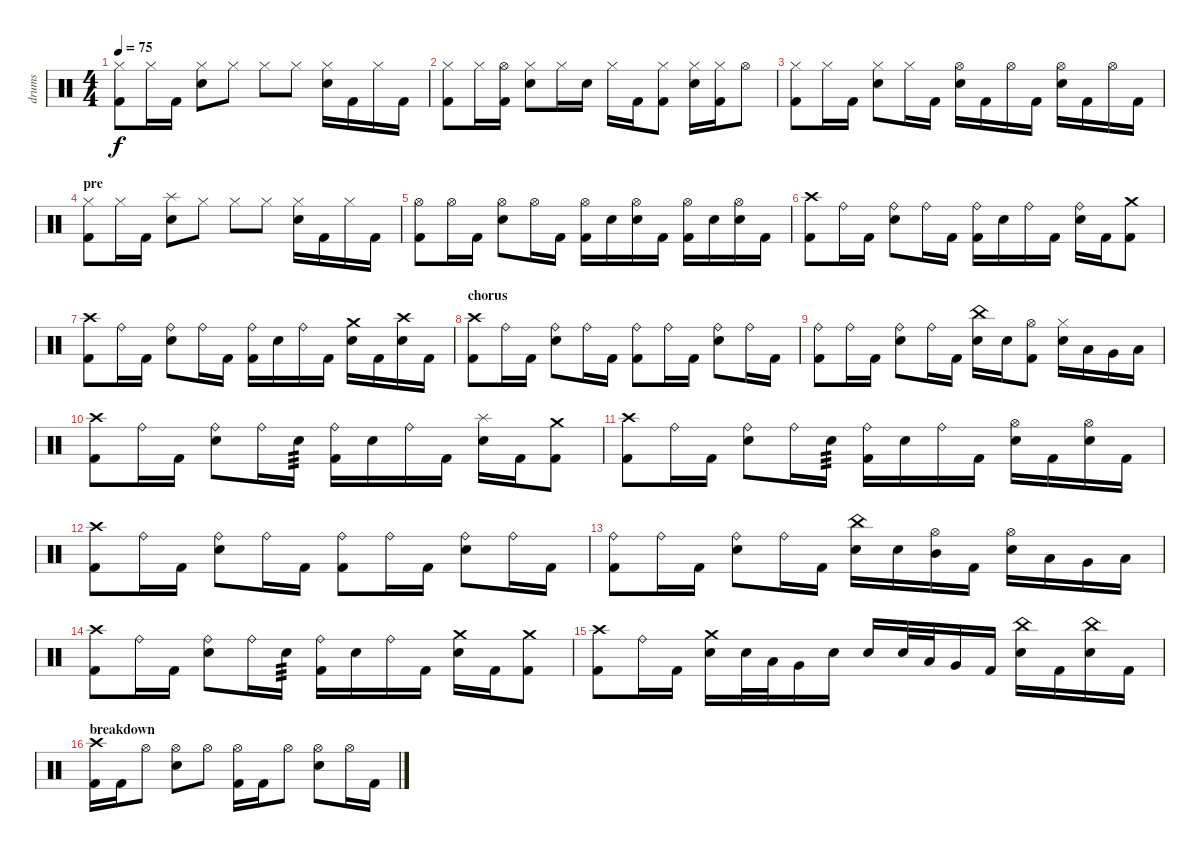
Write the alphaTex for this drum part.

\track ("drums" "drums") {instrument percussion}
\staff {score}
\articulation defaults
\ts (4 4)
\tempo 75
\clef neutral
\ks c
("Hi-Hat (closed)" "Kick (hit) 2").8{dy f} "Hi-Hat (closed)".16 "Kick (hit) 2".16 ("Hi-Hat (closed)" "Electric Snare (hit)").8 "Hi-Hat (closed)".8 "Hi-Hat (closed)".8 "Hi-Hat (closed)".8 ("Hi-Hat (closed)" "Electric Snare (hit)").16 "Kick (hit) 2".16 "Hi-Hat (closed)".16 "Kick (hit) 2".16 |
("Hi-Hat (closed)" "Kick (hit) 2").8 "Hi-Hat (closed)".16 ("Hi-Hat (open)" "Kick (hit) 2").16 ("Hi-Hat (closed)" "Electric Snare (hit)").8 "Hi-Hat (closed)".16 "Electric Snare (hit)".16 "Hi-Hat (closed)".16 "Kick (hit) 2".16 ("Hi-Hat (closed)" "Kick (hit) 2").8 ("Hi-Hat (closed)" "Electric Snare (hit)").16 ("Hi-Hat (closed)" "Kick (hit) 2").16 "Hi-Hat (open)".8 |
("Hi-Hat (closed)" "Kick (hit) 2").8 "Hi-Hat (closed)".16 "Kick (hit) 2".16 ("Hi-Hat (closed)" "Electric Snare (hit)").8 "Hi-Hat (closed)".16 "Kick (hit) 2".16 ("Hi-Hat (open)" "Electric Snare (hit)").16 "Kick (hit) 2".16 "Hi-Hat (open)".16 "Kick (hit) 2".16 ("Hi-Hat (open)" "Electric Snare (hit)").16 "Kick (hit) 2".16 "Hi-Hat (open)".16 "Kick (hit) 2".16 |
\section ("" "pre")
("Hi-Hat (closed)" "Kick (hit) 2").8 "Hi-Hat (closed)".16 "Kick (hit) 2".16 ("Splash (hit)" "Electric Snare (hit)").8 "Hi-Hat (closed)".8 "Hi-Hat (closed)".8 "Hi-Hat (closed)".8 ("Hi-Hat (closed)" "Electric Snare (hit)").16 "Kick (hit) 2".16 "Hi-Hat (closed)".16 "Kick (hit) 2".16 |
("Hi-Hat (open)" "Kick (hit) 2").8 "Hi-Hat (open)".16 "Kick (hit) 2".16 ("Hi-Hat (open)" "Electric Snare (hit)").8 "Hi-Hat (open)".16 "Kick (hit) 2".16 ("Hi-Hat (open)" "Kick (hit) 2").16 "Electric Snare (hit)".16 ("Hi-Hat (open)" "Electric Snare (hit)").16 "Kick (hit) 2".16 ("Hi-Hat (open)" "Kick (hit) 2").16 "Electric Snare (hit)".16 ("Hi-Hat (open)" "Electric Snare (hit)").16 "Kick (hit) 2".16 |
("Crash high (hit)" "Kick (hit) 2").8 "Ride (bell)".16 "Kick (hit) 2".16 ("Ride (bell)" "Electric Snare (hit)").8 "Ride (bell)".16 "Kick (hit) 2".16 ("Ride (bell)" "Kick (hit) 2").16 "Electric Snare (hit)".16 "Ride (bell)".16 "Kick (hit) 2".16 ("Ride (bell)" "Electric Snare (hit)").16 "Kick (hit) 2".16 ("Crash medium (hit)" "Kick (hit) 2").8 |
("Crash high (hit)" "Kick (hit) 2").8 "Ride (bell)".16 "Kick (hit) 2".16 ("Ride (bell)" "Electric Snare (hit)").8 "Ride (bell)".16 "Kick (hit) 2".16 ("Ride (bell)" "Kick (hit) 2").16 "Electric Snare (hit)".16 "Ride (bell)".16 "Kick (hit) 2".16 ("Crash medium (hit)" "Electric Snare (hit)").16 "Kick (hit) 2".16 ("Crash high (hit)" "Electric Snare (hit)").16 "Kick (hit) 2".16 |
\section ("" "chorus")
("Crash high (hit)" "Kick (hit) 2").8 "Ride (bell)".16 "Kick (hit) 2".16 ("Ride (bell)" "Electric Snare (hit)").8 "Ride (bell)".16 "Kick (hit) 2".16 ("Ride (bell)" "Kick (hit) 2").8 "Ride (bell)".16 "Kick (hit) 2".16 ("Ride (bell)" "Electric Snare (hit)").8 "Ride (bell)".16 "Kick (hit) 2".16 |
("Ride (bell)" "Kick (hit) 2").8 "Ride (bell)".16 "Kick (hit) 2".16 ("Ride (bell)" "Electric Snare (hit)").8 "Ride (bell)".16 "Kick (hit) 2".16 ("China (hit)" "Electric Snare (hit)").16 "Electric Snare (hit)".16 ("Hi-Hat (open)" "Kick (hit) 2").8 ("Hi-Hat (closed)" "Electric Snare (hit)").16 "Low Tom (hit)".16 "Very Low Tom (hit)".16 "Low Floor Tom (hit)".16 |
("Crash high (hit)" "Kick (hit) 2").8 "Ride (bell)".16 "Kick (hit) 2".16 ("Ride (bell)" "Electric Snare (hit)").8 "Ride (bell)".16 "Electric Snare (hit)".16{tp 3} ("Ride (bell)" "Kick (hit) 2").16 "Electric Snare (hit)".16 "Ride (bell)".16 "Kick (hit) 2".16 ("Splash (hit)" "Electric Snare (hit)").16 "Kick (hit) 2".16 ("Crash medium (hit)" "Kick (hit) 2").8 |
("Crash high (hit)" "Kick (hit) 2").8 "Ride (bell)".16 "Kick (hit) 2".16 ("Ride (bell)" "Electric Snare (hit)").8 "Ride (bell)".16 "Electric Snare (hit)".16{tp 3} ("Ride (bell)" "Kick (hit) 2").16 "Electric Snare (hit)".16 "Ride (bell)".16 "Kick (hit) 2".16 ("Hi-Hat (open)" "Electric Snare (hit)").16 "Kick (hit) 2".16 ("Hi-Hat (open)" "Electric Snare (hit)").16 "Kick (hit) 2".16 |
("Crash high (hit)" "Kick (hit) 2").8 "Ride (bell)".16 "Kick (hit) 2".16 ("Ride (bell)" "Electric Snare (hit)").8 "Ride (bell)".16 "Kick (hit) 2".16 ("Ride (bell)" "Kick (hit) 2").8 "Ride (bell)".16 "Kick (hit) 2".16 ("Ride (bell)" "Electric Snare (hit)").8 "Ride (bell)".16 "Kick (hit) 2".16 |
("Ride (bell)" "Kick (hit) 2").8 "Ride (bell)".16 "Kick (hit) 2".16 ("Ride (bell)" "Electric Snare (hit)").8 "Ride (bell)".16 "Kick (hit) 2".16 ("China (hit)" "Electric Snare (hit)").16 "Electric Snare (hit)".16 ("Hi-Hat (open)" "Mid Tom (hit)").16 "Kick (hit) 2".16 ("Hi-Hat (open)" "Electric Snare (hit)").16 "Low Tom (hit)".16 "Very Low Tom (hit)".16 "Low Floor Tom (hit)".16 |
("Crash high (hit)" "Kick (hit) 2").8 "Ride (bell)".16 "Kick (hit) 2".16 ("Ride (bell)" "Electric Snare (hit)").8 "Ride (bell)".16 "Electric Snare (hit)".16{tp 3} ("Ride (bell)" "Kick (hit) 2").16 "Electric Snare (hit)".16 "Ride (bell)".16 "Kick (hit) 2".16 ("Crash medium (hit)" "Electric Snare (hit)").16 "Kick (hit) 2".16 ("Crash medium (hit)" "Kick (hit) 2").8 |
("Crash high (hit)" "Kick (hit) 2").8 "Ride (bell)".16 "Kick (hit) 2".16 ("Crash medium (hit)" "Electric Snare (hit)").16 "Electric Snare (hit)".32 "Low Tom (hit)".32 "Very Low Tom (hit)".16 "Electric Snare (hit)".16 "Electric Snare (hit)".16 "Electric Snare (hit)".32 "Low Tom (hit)".32 "Very Low Tom (hit)".16 "Kick (hit) 2".16 ("China (hit)" "Electric Snare (hit)").16 "Kick (hit) 2".16 ("China (hit)" "Electric Snare (hit)").16 "Kick (hit) 2".16 |
\section ("" "breakdown")
("Crash high (hit)" "Kick (hit) 2").16 "Kick (hit) 2".16 "Hi-Hat (open)".8 ("Hi-Hat (open)" "Electric Snare (hit)").8 "Hi-Hat (open)".8 ("Hi-Hat (open)" "Kick (hit) 2").16 "Kick (hit) 2".16 "Hi-Hat (open)".8 ("Hi-Hat (open)" "Electric Snare (hit)").8 "Hi-Hat (open)".16 "Kick (hit) 2".16
